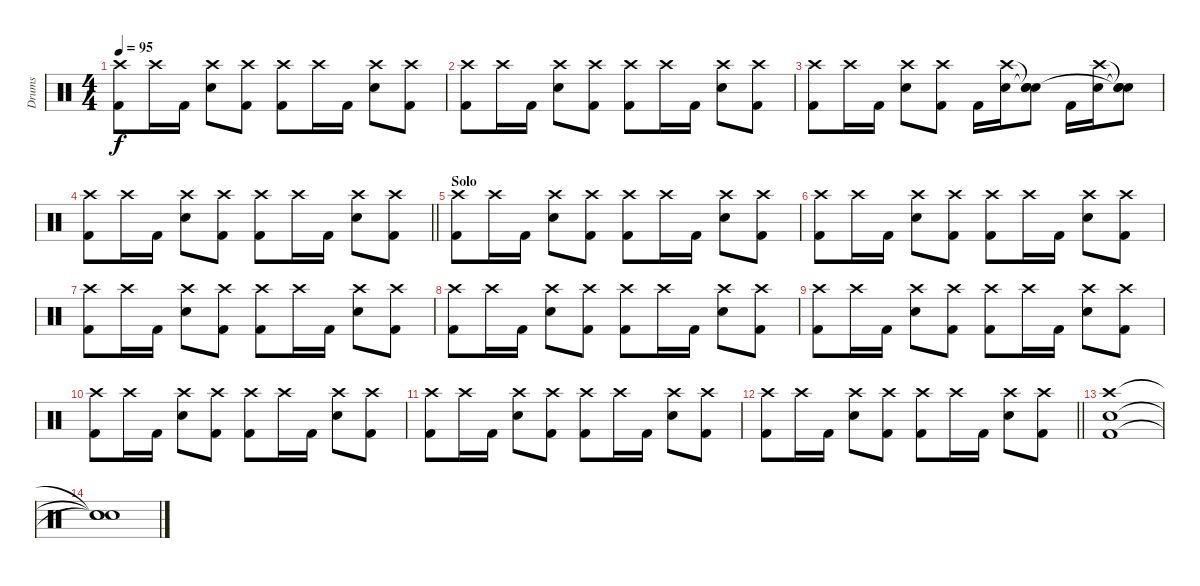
\track ("Drums" "Drums") {instrument percussion}
\staff {score}
\articulation defaults
\ts (4 4)
\tempo 95
\clef neutral
\ks c
("Crash high (hit)" "Kick (hit) 2").8{dy f} "Crash high (hit)".16 "Kick (hit) 2".16 ("Crash high (hit)" "Snare (hit) 2").8 ("Crash high (hit)" "Kick (hit) 2").8 ("Crash high (hit)" "Kick (hit) 2").8 "Crash high (hit)".16 "Kick (hit) 2".16 ("Crash high (hit)" "Snare (hit) 2").8 ("Crash high (hit)" "Kick (hit) 2").8 |
("Crash high (hit)" "Kick (hit) 2").8 "Crash high (hit)".16 "Kick (hit) 2".16 ("Crash high (hit)" "Snare (hit) 2").8 ("Crash high (hit)" "Kick (hit) 2").8 ("Crash high (hit)" "Kick (hit) 2").8 "Crash high (hit)".16 "Kick (hit) 2".16 ("Crash high (hit)" "Snare (hit) 2").8 ("Crash high (hit)" "Kick (hit) 2").8 |
("Crash high (hit)" "Kick (hit) 2").8 "Crash high (hit)".16 "Kick (hit) 2".16 ("Crash high (hit)" "Snare (hit) 2").8 ("Crash high (hit)" "Kick (hit) 2").8 "Kick (hit) 2".16 ("Crash high (hit)" "Snare (hit) 2").16 ("Snare (hit)"{t} "Snare (hit)"{t} "Snare (hit)"{t}).8 "Kick (hit) 2".16 ("Crash high (hit)" "Snare (hit) 2").16 ("Snare (hit)"{t} "Snare (hit)"{t} "Snare (hit)"{t}).8 |
\barLineRight lightlight
("Crash high (hit)" "Kick (hit) 2").8 "Crash high (hit)".16 "Kick (hit) 2".16 ("Crash high (hit)" "Snare (hit) 2").8 ("Crash high (hit)" "Kick (hit) 2").8 ("Crash high (hit)" "Kick (hit) 2").8 "Crash high (hit)".16 "Kick (hit) 2".16 ("Crash high (hit)" "Snare (hit) 2").8 ("Crash high (hit)" "Kick (hit) 2").8 |
\section ("" "Solo")
("Crash high (hit)" "Kick (hit) 2").8 "Crash high (hit)".16 "Kick (hit) 2".16 ("Crash high (hit)" "Snare (hit) 2").8 ("Crash high (hit)" "Kick (hit) 2").8 ("Crash high (hit)" "Kick (hit) 2").8 "Crash high (hit)".16 "Kick (hit) 2".16 ("Crash high (hit)" "Snare (hit) 2").8 ("Crash high (hit)" "Kick (hit) 2").8 |
("Crash high (hit)" "Kick (hit) 2").8 "Crash high (hit)".16 "Kick (hit) 2".16 ("Crash high (hit)" "Snare (hit) 2").8 ("Crash high (hit)" "Kick (hit) 2").8 ("Crash high (hit)" "Kick (hit) 2").8 "Crash high (hit)".16 "Kick (hit) 2".16 ("Crash high (hit)" "Snare (hit) 2").8 ("Crash high (hit)" "Kick (hit) 2").8 |
("Crash high (hit)" "Kick (hit) 2").8 "Crash high (hit)".16 "Kick (hit) 2".16 ("Crash high (hit)" "Snare (hit) 2").8 ("Crash high (hit)" "Kick (hit) 2").8 ("Crash high (hit)" "Kick (hit) 2").8 "Crash high (hit)".16 "Kick (hit) 2".16 ("Crash high (hit)" "Snare (hit) 2").8 ("Crash high (hit)" "Kick (hit) 2").8 |
("Crash high (hit)" "Kick (hit) 2").8 "Crash high (hit)".16 "Kick (hit) 2".16 ("Crash high (hit)" "Snare (hit) 2").8 ("Crash high (hit)" "Kick (hit) 2").8 ("Crash high (hit)" "Kick (hit) 2").8 "Crash high (hit)".16 "Kick (hit) 2".16 ("Crash high (hit)" "Snare (hit) 2").8 ("Crash high (hit)" "Kick (hit) 2").8 |
("Crash high (hit)" "Kick (hit) 2").8 "Crash high (hit)".16 "Kick (hit) 2".16 ("Crash high (hit)" "Snare (hit) 2").8 ("Crash high (hit)" "Kick (hit) 2").8 ("Crash high (hit)" "Kick (hit) 2").8 "Crash high (hit)".16 "Kick (hit) 2".16 ("Crash high (hit)" "Snare (hit) 2").8 ("Crash high (hit)" "Kick (hit) 2").8 |
("Crash high (hit)" "Kick (hit) 2").8 "Crash high (hit)".16 "Kick (hit) 2".16 ("Crash high (hit)" "Snare (hit) 2").8 ("Crash high (hit)" "Kick (hit) 2").8 ("Crash high (hit)" "Kick (hit) 2").8 "Crash high (hit)".16 "Kick (hit) 2".16 ("Crash high (hit)" "Snare (hit) 2").8 ("Crash high (hit)" "Kick (hit) 2").8 |
("Crash high (hit)" "Kick (hit) 2").8 "Crash high (hit)".16 "Kick (hit) 2".16 ("Crash high (hit)" "Snare (hit) 2").8 ("Crash high (hit)" "Kick (hit) 2").8 ("Crash high (hit)" "Kick (hit) 2").8 "Crash high (hit)".16 "Kick (hit) 2".16 ("Crash high (hit)" "Snare (hit) 2").8 ("Crash high (hit)" "Kick (hit) 2").8 |
\barLineRight lightlight
("Crash high (hit)" "Kick (hit) 2").8 "Crash high (hit)".16 "Kick (hit) 2".16 ("Crash high (hit)" "Snare (hit) 2").8 ("Crash high (hit)" "Kick (hit) 2").8 ("Crash high (hit)" "Kick (hit) 2").8 "Crash high (hit)".16 "Kick (hit) 2".16 ("Crash high (hit)" "Snare (hit) 2").8 ("Crash high (hit)" "Kick (hit) 2").8 |
("Crash high (hit)" "Snare (hit) 2" "Kick (hit) 2").1 |
("Snare (hit)"{t} "Snare (hit)"{t} "Snare (hit)"{t}).1
